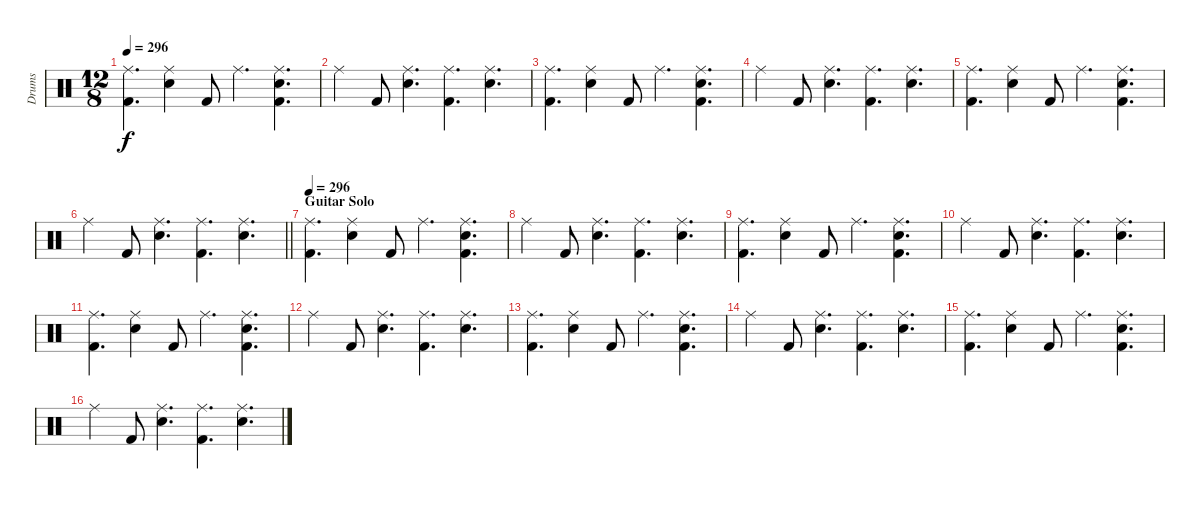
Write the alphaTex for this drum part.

\track ("Drums" "Drums") {instrument percussion}
\staff {score}
\articulation defaults
\ts (12 8)
\tempo 296
\clef neutral
\ks c
("Ride (middle)" "Kick (hit) 2").4{d dy f} ("Ride (middle)" "Electric Snare (hit)").4 "Kick (hit) 2".8 "Ride (middle)".4{d} ("Ride (middle)" "Electric Snare (hit)" "Kick (hit) 2").4{d} |
"Ride (middle)".4 "Kick (hit) 2".8 ("Ride (middle)" "Electric Snare (hit)").4{d} ("Ride (middle)" "Kick (hit) 2").4{d} ("Ride (middle)" "Electric Snare (hit)").4{d} |
("Ride (middle)" "Kick (hit) 2").4{d} ("Ride (middle)" "Electric Snare (hit)").4 "Kick (hit) 2".8 "Ride (middle)".4{d} ("Ride (middle)" "Electric Snare (hit)" "Kick (hit) 2").4{d} |
"Ride (middle)".4 "Kick (hit) 2".8 ("Ride (middle)" "Electric Snare (hit)").4{d} ("Ride (middle)" "Kick (hit) 2").4{d} ("Ride (middle)" "Electric Snare (hit)").4{d} |
("Ride (middle)" "Kick (hit) 2").4{d} ("Ride (middle)" "Electric Snare (hit)").4 "Kick (hit) 2".8 "Ride (middle)".4{d} ("Ride (middle)" "Electric Snare (hit)" "Kick (hit) 2").4{d} |
\barLineRight lightlight "Ride (middle)".4 "Kick (hit) 2".8
("Ride (middle)" "Electric Snare (hit)").4{d} ("Ride (middle)" "Kick (hit) 2").4{d} ("Ride (middle)" "Electric Snare (hit)").4{d} |
\section ("" "Guitar Solo")
\tempo 296
("Ride (middle)" "Kick (hit) 2").4{d} ("Ride (middle)" "Electric Snare (hit)").4 "Kick (hit) 2".8 "Ride (middle)".4{d} ("Ride (middle)" "Electric Snare (hit)" "Kick (hit) 2").4{d} |
"Ride (middle)".4 "Kick (hit) 2".8 ("Ride (middle)" "Electric Snare (hit)").4{d} ("Ride (middle)" "Kick (hit) 2").4{d} ("Ride (middle)" "Electric Snare (hit)").4{d} |
("Ride (middle)" "Kick (hit) 2").4{d} ("Ride (middle)" "Electric Snare (hit)").4 "Kick (hit) 2".8 "Ride (middle)".4{d} ("Ride (middle)" "Electric Snare (hit)" "Kick (hit) 2").4{d} |
"Ride (middle)".4 "Kick (hit) 2".8 ("Ride (middle)" "Electric Snare (hit)").4{d} ("Ride (middle)" "Kick (hit) 2").4{d} ("Ride (middle)" "Electric Snare (hit)").4{d} |
("Ride (middle)" "Kick (hit) 2").4{d} ("Ride (middle)" "Electric Snare (hit)").4 "Kick (hit) 2".8 "Ride (middle)".4{d} ("Ride (middle)" "Electric Snare (hit)" "Kick (hit) 2").4{d} |
"Ride (middle)".4 "Kick (hit) 2".8 ("Ride (middle)" "Electric Snare (hit)").4{d} ("Ride (middle)" "Kick (hit) 2").4{d} ("Ride (middle)" "Electric Snare (hit)").4{d} |
("Ride (middle)" "Kick (hit) 2").4{d} ("Ride (middle)" "Electric Snare (hit)").4 "Kick (hit) 2".8 "Ride (middle)".4{d} ("Ride (middle)" "Electric Snare (hit)" "Kick (hit) 2").4{d} |
"Ride (middle)".4 "Kick (hit) 2".8 ("Ride (middle)" "Electric Snare (hit)").4{d} ("Ride (middle)" "Kick (hit) 2").4{d} ("Ride (middle)" "Electric Snare (hit)").4{d} |
("Ride (middle)" "Kick (hit) 2").4{d} ("Ride (middle)" "Electric Snare (hit)").4 "Kick (hit) 2".8 "Ride (middle)".4{d} ("Ride (middle)" "Electric Snare (hit)" "Kick (hit) 2").4{d} |
"Ride (middle)".4 "Kick (hit) 2".8 ("Ride (middle)" "Electric Snare (hit)").4{d} ("Ride (middle)" "Kick (hit) 2").4{d} ("Ride (middle)" "Electric Snare (hit)").4{d}
